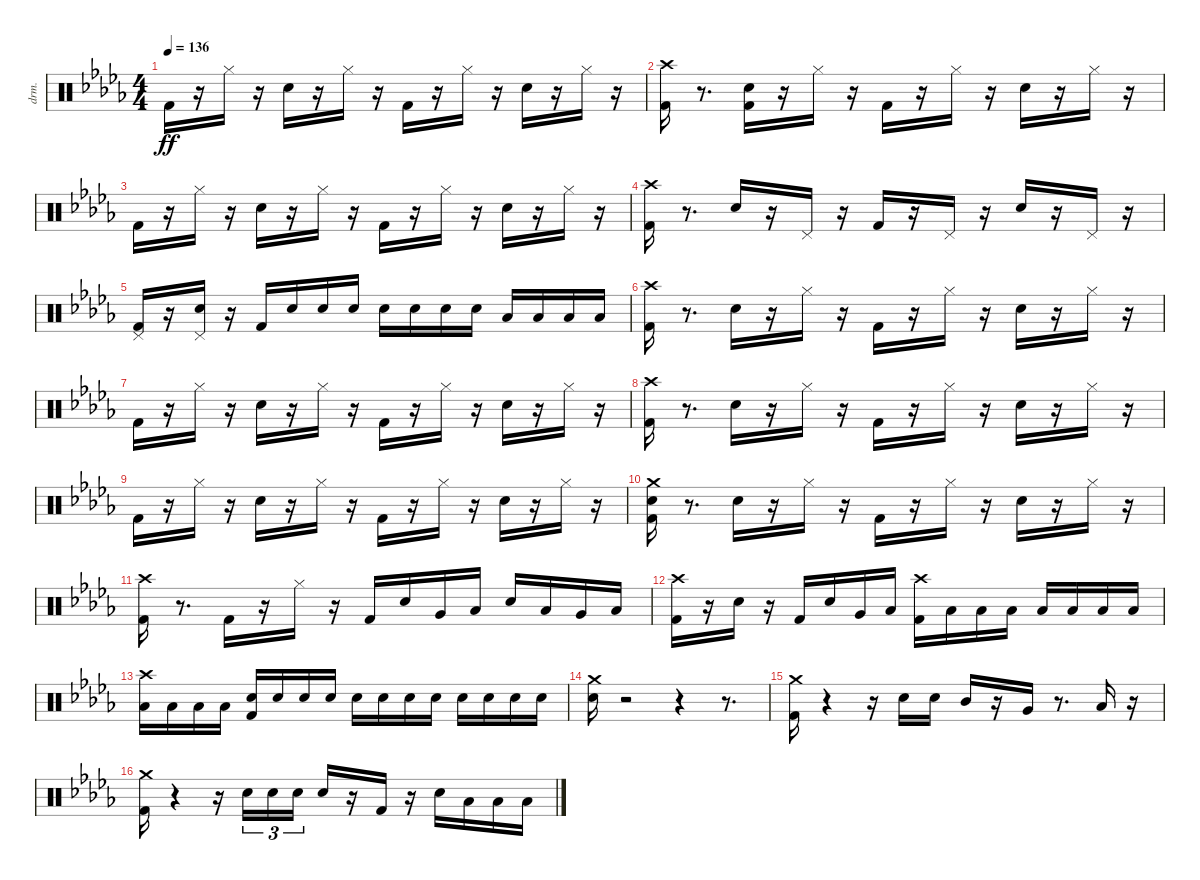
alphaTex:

\bracketExtendMode nobrackets
\track ("Drums" "drm.") {instrument percussion}
\staff {score}
\articulation defaults
\ts (4 4)
\tempo 136
\clef neutral
\ks db "Kick (hit) 2"{acc forcenatural}.16{dy ff beam Down}
r.16{beam Down} "Hi-Hat (closed)"{acc #}.16{beam Down} r.16{beam Down} "Electric Snare (hit)"{acc forcenatural}.16{beam Down} r.16{beam Down} "Hi-Hat (closed)"{acc #}.16{beam Down} r.16{beam Down} "Kick (hit) 2"{acc forcenatural}.16{beam Down} r.16{beam Down} "Hi-Hat (closed)"{acc #}.16{beam Down} r.16{beam Down} "Electric Snare (hit)"{acc forcenatural}.16{beam Down} r.16{beam Down} "Hi-Hat (closed)"{acc #}.16{beam Down} r.16{beam Down} |
("Kick (hit) 2"{acc forcenatural} "Crash high (hit)"{acc #}).16{beam Down} r.8{d beam Down} ("Kick (hit) 2"{acc forcenatural} "Electric Snare (hit)"{acc forcenatural}).16{beam Down} r.16{beam Down} "Hi-Hat (closed)"{acc #}.16{beam Down} r.16{beam Down} "Kick (hit) 2"{acc forcenatural}.16{beam Down} r.16{beam Down} "Hi-Hat (closed)"{acc #}.16{beam Down} r.16{beam Down} "Electric Snare (hit)"{acc forcenatural}.16{beam Down} r.16{beam Down} "Hi-Hat (closed)"{acc #}.16{beam Down} r.16{beam Down} |
"Kick (hit) 2"{acc forcenatural}.16{beam Down} r.16{beam Down} "Hi-Hat (closed)"{acc #}.16{beam Down} r.16{beam Down} "Electric Snare (hit)"{acc forcenatural}.16{beam Down} r.16{beam Down} "Hi-Hat (closed)"{acc #}.16{beam Down} r.16{beam Down} "Kick (hit) 2"{acc forcenatural}.16{beam Down} r.16{beam Down} "Hi-Hat (closed)"{acc #}.16{beam Down} r.16{beam Down} "Electric Snare (hit)"{acc forcenatural}.16{beam Down} r.16{beam Down} "Hi-Hat (closed)"{acc #}.16{beam Down} r.16{beam Down} |
("Kick (hit) 2"{acc forcenatural} "Crash high (hit)"{acc #}).16{beam Down} r.8{d beam Down} "Electric Snare (hit)"{acc forcenatural}.16{beam Up} r.16{beam Up} "Pedal Hi-Hat (hit)"{acc #}.16{beam Up} r.16{beam Down} "Kick (hit) 2"{acc forcenatural}.16{beam Up} r.16{beam Up} "Pedal Hi-Hat (hit)"{acc #}.16{beam Up} r.16{beam Down} "Electric Snare (hit)"{acc forcenatural}.16{beam Up} r.16{beam Up} "Pedal Hi-Hat (hit)"{acc #}.16{beam Up} r.16{beam Down} |
("Kick (hit) 2"{acc forcenatural} "Pedal Hi-Hat (hit)"{acc #}).16{beam Up} r.16{beam Up} ("Electric Snare (hit)"{acc forcenatural} "Pedal Hi-Hat (hit)"{acc #}).16{beam Up} r.16{beam Down} "Kick (hit) 2"{acc forcenatural}.16{beam Up} "Electric Snare (hit)"{acc forcenatural}.16{beam Up} "Electric Snare (hit)"{acc forcenatural}.16{beam Up} "Electric Snare (hit)"{acc forcenatural}.16{beam Up} "Electric Snare (hit)"{acc forcenatural}.16{beam Down} "Electric Snare (hit)"{acc forcenatural}.16{beam Down} "Electric Snare (hit)"{acc forcenatural}.16{beam Down} "Electric Snare (hit)"{acc forcenatural}.16{beam Down} "Low Floor Tom (hit)"{acc forcenatural}.16{beam Up} "Low Floor Tom (hit)"{acc forcenatural}.16{beam Up} "Low Floor Tom (hit)"{acc forcenatural}.16{beam Up} "Low Floor Tom (hit)"{acc forcenatural}.16{beam Up} |
("Kick (hit) 2"{acc forcenatural} "Crash high (hit)"{acc #}).16{beam Down} r.8{d beam Down} "Electric Snare (hit)"{acc forcenatural}.16{beam Down} r.16{beam Down} "Hi-Hat (closed)"{acc #}.16{beam Down} r.16{beam Down} "Kick (hit) 2"{acc forcenatural}.16{beam Down} r.16{beam Down} "Hi-Hat (closed)"{acc #}.16{beam Down} r.16{beam Down} "Electric Snare (hit)"{acc forcenatural}.16{beam Down} r.16{beam Down} "Hi-Hat (closed)"{acc #}.16{beam Down} r.16{beam Down} |
"Kick (hit) 2"{acc forcenatural}.16{beam Down} r.16{beam Down} "Hi-Hat (closed)"{acc #}.16{beam Down} r.16{beam Down} "Electric Snare (hit)"{acc forcenatural}.16{beam Down} r.16{beam Down} "Hi-Hat (closed)"{acc #}.16{beam Down} r.16{beam Down} "Kick (hit) 2"{acc forcenatural}.16{beam Down} r.16{beam Down} "Hi-Hat (closed)"{acc #}.16{beam Down} r.16{beam Down} "Electric Snare (hit)"{acc forcenatural}.16{beam Down} r.16{beam Down} "Hi-Hat (closed)"{acc #}.16{beam Down} r.16{beam Down} |
("Kick (hit) 2"{acc forcenatural} "Crash high (hit)"{acc #}).16{beam Down} r.8{d beam Down} "Electric Snare (hit)"{acc forcenatural}.16{beam Down} r.16{beam Down} "Hi-Hat (closed)"{acc #}.16{beam Down} r.16{beam Down} "Kick (hit) 2"{acc forcenatural}.16{beam Down} r.16{beam Down} "Hi-Hat (closed)"{acc #}.16{beam Down} r.16{beam Down} "Electric Snare (hit)"{acc forcenatural}.16{beam Down} r.16{beam Down} "Hi-Hat (closed)"{acc #}.16{beam Down} r.16{beam Down} |
"Kick (hit) 2"{acc forcenatural}.16{beam Down} r.16{beam Down} "Hi-Hat (closed)"{acc #}.16{beam Down} r.16{beam Down} "Electric Snare (hit)"{acc forcenatural}.16{beam Down} r.16{beam Down} "Hi-Hat (closed)"{acc #}.16{beam Down} r.16{beam Down} "Kick (hit) 2"{acc forcenatural}.16{beam Down} r.16{beam Down} "Hi-Hat (closed)"{acc #}.16{beam Down} r.16{beam Down} "Electric Snare (hit)"{acc forcenatural}.16{beam Down} r.16{beam Down} "Hi-Hat (closed)"{acc #}.16{beam Down} r.16{beam Down} |
("Kick (hit) 2"{acc forcenatural} "Electric Snare (hit)"{acc forcenatural} "Crash medium (hit)"{acc forcenatural}).16{beam Down} r.8{d beam Down} "Electric Snare (hit)"{acc forcenatural}.16{beam Down} r.16{beam Down} "Hi-Hat (closed)"{acc #}.16{beam Down} r.16{beam Down} "Kick (hit) 2"{acc forcenatural}.16{beam Down} r.16{beam Down} "Hi-Hat (closed)"{acc #}.16{beam Down} r.16{beam Down} "Electric Snare (hit)"{acc forcenatural}.16{beam Down} r.16{beam Down} "Hi-Hat (closed)"{acc #}.16{beam Down} r.16{beam Down} |
("Kick (hit) 2"{acc forcenatural} "Crash high (hit)"{acc #}).16{beam Down} r.8{d beam Down} "Kick (hit) 2"{acc forcenatural}.16{beam Down} r.16{beam Down} "Hi-Hat (closed)"{acc #}.16{beam Down} r.16{beam Down} "Kick (hit) 2"{acc forcenatural}.16{beam Up} "Electric Snare (hit)"{acc forcenatural}.16{beam Up} "Very Low Tom (hit)"{acc forcenatural}.16{beam Up} "Low Floor Tom (hit)"{acc forcenatural}.16{beam Up} "Electric Snare (hit)"{acc forcenatural}.16{beam Up} "Low Tom (hit)"{acc forcenatural}.16{beam Up} "Very Low Tom (hit)"{acc forcenatural}.16{beam Up} "Low Floor Tom (hit)"{acc forcenatural}.16{beam Up} |
("Kick (hit) 2"{acc forcenatural} "Crash high (hit)"{acc #}).16{beam Down} r.16{beam Down} "Electric Snare (hit)"{acc forcenatural}.16{beam Down} r.16{beam Down} "Kick (hit) 2"{acc forcenatural}.16{beam Up} "Electric Snare (hit)"{acc forcenatural}.16{beam Up} "Very Low Tom (hit)"{acc forcenatural}.16{beam Up} "Low Floor Tom (hit)"{acc forcenatural}.16{beam Up} ("Kick (hit) 2"{acc forcenatural} "Crash high (hit)"{acc #}).16{beam Down} "Low Floor Tom (hit)"{acc forcenatural}.16{beam Down} "Low Floor Tom (hit)"{acc forcenatural}.16{beam Down} "Low Floor Tom (hit)"{acc forcenatural}.16{beam Down} "Low Floor Tom (hit)"{acc forcenatural}.16{beam Up} "Low Floor Tom (hit)"{acc forcenatural}.16{beam Up} "Low Floor Tom (hit)"{acc forcenatural}.16{beam Up} "Low Floor Tom (hit)"{acc forcenatural}.16{beam Up} |
("Low Floor Tom (hit)"{acc forcenatural} "Crash high (hit)"{acc #}).16{beam Down} "Low Floor Tom (hit)"{acc forcenatural}.16{beam Down} "Low Floor Tom (hit)"{acc forcenatural}.16{beam Down} "Low Floor Tom (hit)"{acc forcenatural}.16{beam Down} ("Kick (hit) 2"{acc forcenatural} "Electric Snare (hit)"{acc forcenatural}).16{beam Up} "Electric Snare (hit)"{acc forcenatural}.16{beam Up} "Electric Snare (hit)"{acc forcenatural}.16{beam Up} "Electric Snare (hit)"{acc forcenatural}.16{beam Up} "Electric Snare (hit)"{acc forcenatural}.16{beam Down} "Electric Snare (hit)"{acc forcenatural}.16{beam Down} "Electric Snare (hit)"{acc forcenatural}.16{beam Down} "Electric Snare (hit)"{acc forcenatural}.16{beam Down} "Electric Snare (hit)"{acc forcenatural}.16{beam Down} "Electric Snare (hit)"{acc forcenatural}.16{beam Down} "Electric Snare (hit)"{acc forcenatural}.16{beam Down} "Electric Snare (hit)"{acc forcenatural}.16{beam Down} |
("Electric Snare (hit)"{acc forcenatural} "Crash medium (hit)"{acc forcenatural}).16{beam Down} r.2{beam Down} r.4{beam Down} r.8{d beam Down} |
("Kick (hit) 2"{acc forcenatural} "Crash medium (hit)"{acc forcenatural}).16{beam Down} r.4{beam Down} r.16{beam Down} "Electric Snare (hit)"{acc forcenatural}.16{beam Down} "Electric Snare (hit)"{acc forcenatural}.16{beam Down} "Mid Tom (hit)"{acc forcenatural}.16{beam Up} r.16{beam Up} "Very Low Tom (hit)"{acc forcenatural}.16{beam Up} r.8{d beam Down} "Low Floor Tom (hit)"{acc forcenatural}.16{beam Up} r.16{beam Down} |
("Kick (hit) 2"{acc forcenatural} "Crash medium (hit)"{acc forcenatural}).16{beam Down} r.4{beam Down} r.16{beam Down} "Electric Snare (hit)"{acc forcenatural}.16{tu (3 2) beam Down} "Electric Snare (hit)"{acc forcenatural}.16{tu (3 2) beam Down} "Electric Snare (hit)"{acc forcenatural}.16{tu (3 2) beam Down} "Electric Snare (hit)"{acc forcenatural}.16{beam Up} r.16{beam Up} "Kick (hit) 2"{acc forcenatural}.16{beam Up} r.16{beam Down} "Electric Snare (hit)"{acc forcenatural}.16{beam Down} "Low Floor Tom (hit)"{acc forcenatural}.16{beam Down} "Low Floor Tom (hit)"{acc forcenatural}.16{beam Down} "Low Floor Tom (hit)"{acc forcenatural}.16{beam Down}
